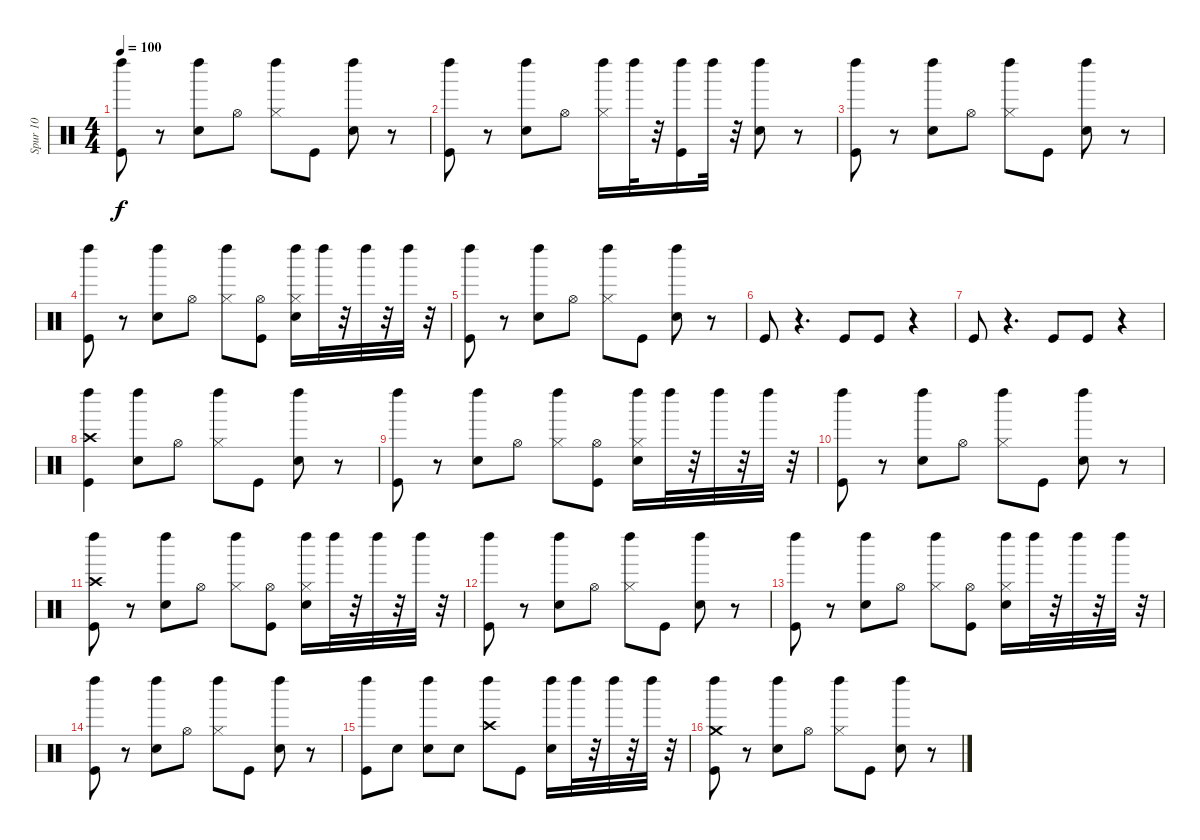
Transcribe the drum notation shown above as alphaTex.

\track ("Spur 10" "Spur 10") {instrument percussion}
\staff {score}
\articulation defaults
\ts (4 4)
\tempo 100
\clef neutral
\ks c
("Kick (hit)" "Left Maraca (hit)").8{dy f} r.8 ("Snare (hit) 2" "Left Maraca (hit)").8 "Hi-Hat (open)".8 ("Hi-Hat (closed)" "Left Maraca (hit)").8 "Kick (hit)".8 ("Snare (hit) 2" "Left Maraca (hit)").8 r.8 |
("Kick (hit)" "Left Maraca (hit)").8 r.8 ("Snare (hit) 2" "Left Maraca (hit)").8 "Hi-Hat (open)".8 ("Hi-Hat (closed)" "Left Maraca (hit)").16 "Left Maraca (hit)".32 r.32 ("Kick (hit)" "Left Maraca (hit)").16 "Left Maraca (hit)".32 r.32 ("Snare (hit) 2" "Left Maraca (hit)").8 r.8 |
("Kick (hit)" "Left Maraca (hit)").8 r.8 ("Snare (hit) 2" "Left Maraca (hit)").8 "Hi-Hat (open)".8 ("Hi-Hat (closed)" "Left Maraca (hit)").8 "Kick (hit)".8 ("Snare (hit) 2" "Left Maraca (hit)").8 r.8 |
("Kick (hit)" "Left Maraca (hit)").8 r.8 ("Snare (hit) 2" "Left Maraca (hit)").8 "Hi-Hat (open)".8 ("Hi-Hat (closed)" "Left Maraca (hit)").8 ("Hi-Hat (open)" "Kick (hit)").8 ("Hi-Hat (closed)" "Snare (hit) 2" "Left Maraca (hit)").16 "Left Maraca (hit)".32 r.32 "Left Maraca (hit)".32 r.32 "Left Maraca (hit)".32 r.32 |
("Kick (hit)" "Left Maraca (hit)").8 r.8 ("Snare (hit) 2" "Left Maraca (hit)").8 "Hi-Hat (open)".8 ("Hi-Hat (closed)" "Left Maraca (hit)").8 "Kick (hit)".8 ("Snare (hit) 2" "Left Maraca (hit)").8 r.8 |
"Kick (hit)".8 r.4{d} "Kick (hit)".8 "Kick (hit)".8 r.4 |
"Kick (hit)".8 r.4{d} "Kick (hit)".8 "Kick (hit)".8 r.4 |
("Crash high (hit)" "Kick (hit)" "Left Maraca (hit)").4 ("Snare (hit) 2" "Left Maraca (hit)").8 "Hi-Hat (open)".8 ("Hi-Hat (closed)" "Left Maraca (hit)").8 "Kick (hit)".8 ("Snare (hit) 2" "Left Maraca (hit)").8 r.8 |
("Kick (hit)" "Left Maraca (hit)").8 r.8 ("Snare (hit) 2" "Left Maraca (hit)").8 "Hi-Hat (open)".8 ("Hi-Hat (closed)" "Left Maraca (hit)").8 ("Hi-Hat (open)" "Kick (hit)").8 ("Hi-Hat (closed)" "Snare (hit) 2" "Left Maraca (hit)").16 "Left Maraca (hit)".32 r.32 "Left Maraca (hit)".32 r.32 "Left Maraca (hit)".32 r.32 |
("Kick (hit)" "Left Maraca (hit)").8 r.8 ("Snare (hit) 2" "Left Maraca (hit)").8 "Hi-Hat (open)".8 ("Hi-Hat (closed)" "Left Maraca (hit)").8 "Kick (hit)".8 ("Snare (hit) 2" "Left Maraca (hit)").8 r.8 |
("Crash high (hit)" "Kick (hit)" "Left Maraca (hit)").8 r.8 ("Snare (hit) 2" "Left Maraca (hit)").8 "Hi-Hat (open)".8 ("Hi-Hat (closed)" "Left Maraca (hit)").8 ("Hi-Hat (open)" "Kick (hit)").8 ("Hi-Hat (closed)" "Snare (hit) 2" "Left Maraca (hit)").16 "Left Maraca (hit)".32 r.32 "Left Maraca (hit)".32 r.32 "Left Maraca (hit)".32 r.32 |
("Kick (hit)" "Left Maraca (hit)").8 r.8 ("Snare (hit) 2" "Left Maraca (hit)").8 "Hi-Hat (open)".8 ("Hi-Hat (closed)" "Left Maraca (hit)").8 "Kick (hit)".8 ("Snare (hit) 2" "Left Maraca (hit)").8 r.8 |
("Kick (hit)" "Left Maraca (hit)").8 r.8 ("Snare (hit) 2" "Left Maraca (hit)").8 "Hi-Hat (open)".8 ("Hi-Hat (closed)" "Left Maraca (hit)").8 ("Hi-Hat (open)" "Kick (hit)").8 ("Hi-Hat (closed)" "Snare (hit) 2" "Left Maraca (hit)").16 "Left Maraca (hit)".32 r.32 "Left Maraca (hit)".32 r.32 "Left Maraca (hit)".32 r.32 |
("Kick (hit)" "Left Maraca (hit)").8 r.8 ("Snare (hit) 2" "Left Maraca (hit)").8 "Hi-Hat (open)".8 ("Hi-Hat (closed)" "Left Maraca (hit)").8 "Kick (hit)".8 ("Snare (hit) 2" "Left Maraca (hit)").8 r.8 |
("Kick (hit)" "Left Maraca (hit)").8 "Electric Snare (hit)".8 ("Snare (hit) 2" "Left Maraca (hit)").8 "Snare (hit) 2".8 ("Crash high (hit)" "Left Maraca (hit)").8 "Kick (hit)".8 ("Snare (hit) 2" "Left Maraca (hit)").16 "Left Maraca (hit)".32 r.32 "Left Maraca (hit)".32 r.32 "Left Maraca (hit)".32 r.32 |
("Crash medium (hit)" "Kick (hit)" "Left Maraca (hit)").8 r.8 ("Snare (hit) 2" "Left Maraca (hit)").8 "Hi-Hat (open)".8 ("Hi-Hat (closed)" "Left Maraca (hit)").8 "Kick (hit)".8 ("Snare (hit) 2" "Left Maraca (hit)").8 r.8
